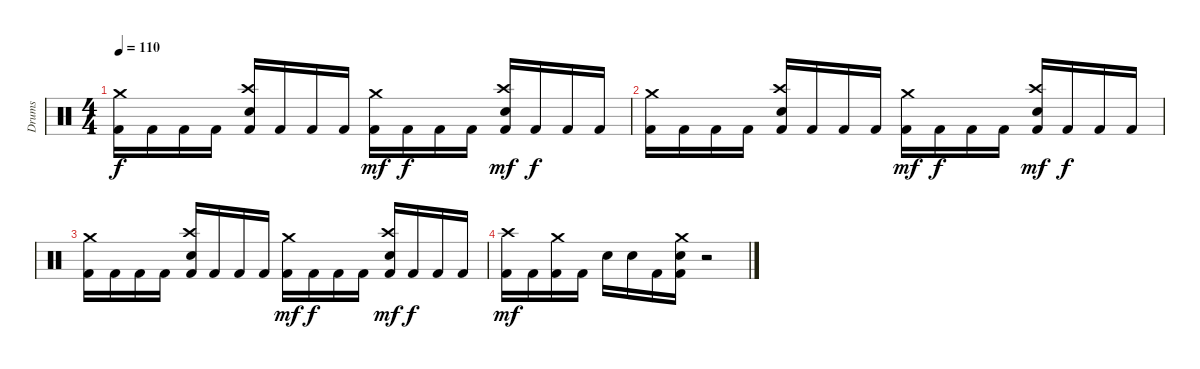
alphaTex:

\track ("Drums" "Drums") {instrument percussion}
\staff {score}
\articulation defaults
\ts (4 4)
\tempo 110
\clef neutral
\ks c
("Crash medium (hit)" "Kick (hit) 2").16{dy f} "Kick (hit) 2".16 "Kick (hit) 2".16 "Kick (hit) 2".16 ("Crash high (hit)" "Electric Snare (hit)" "Kick (hit) 2").16 "Kick (hit) 2".16 "Kick (hit) 2".16 "Kick (hit) 2".16 ("Crash medium (hit)" "Kick (hit) 2").16{dy mf} "Kick (hit) 2".16{dy f} "Kick (hit) 2".16 "Kick (hit) 2".16 ("Crash high (hit)" "Electric Snare (hit)" "Kick (hit) 2").16{dy mf} "Kick (hit) 2".16{dy f} "Kick (hit) 2".16 "Kick (hit) 2".16 |
("Crash medium (hit)" "Kick (hit) 2").16 "Kick (hit) 2".16 "Kick (hit) 2".16 "Kick (hit) 2".16 ("Crash high (hit)" "Electric Snare (hit)" "Kick (hit) 2").16 "Kick (hit) 2".16 "Kick (hit) 2".16 "Kick (hit) 2".16 ("Crash medium (hit)" "Kick (hit) 2").16{dy mf} "Kick (hit) 2".16{dy f} "Kick (hit) 2".16 "Kick (hit) 2".16 ("Crash high (hit)" "Electric Snare (hit)" "Kick (hit) 2").16{dy mf} "Kick (hit) 2".16{dy f} "Kick (hit) 2".16 "Kick (hit) 2".16 |
("Crash medium (hit)" "Kick (hit) 2").16 "Kick (hit) 2".16 "Kick (hit) 2".16 "Kick (hit) 2".16 ("Crash high (hit)" "Electric Snare (hit)" "Kick (hit) 2").16 "Kick (hit) 2".16 "Kick (hit) 2".16 "Kick (hit) 2".16 ("Crash medium (hit)" "Kick (hit) 2").16{dy mf} "Kick (hit) 2".16{dy f} "Kick (hit) 2".16 "Kick (hit) 2".16 ("Crash high (hit)" "Electric Snare (hit)" "Kick (hit) 2").16{dy mf} "Kick (hit) 2".16{dy f} "Kick (hit) 2".16 "Kick (hit) 2".16 |
("Crash high (hit)" "Kick (hit) 2").16{dy mf} "Kick (hit) 2".16 ("Crash medium (hit)" "Kick (hit) 2").16 "Kick (hit) 2".16 "Electric Snare (hit)".16 "Electric Snare (hit)".16 "Kick (hit) 2".16 ("Crash medium (hit)" "Electric Snare (hit)" "Kick (hit) 2").16 r.2
